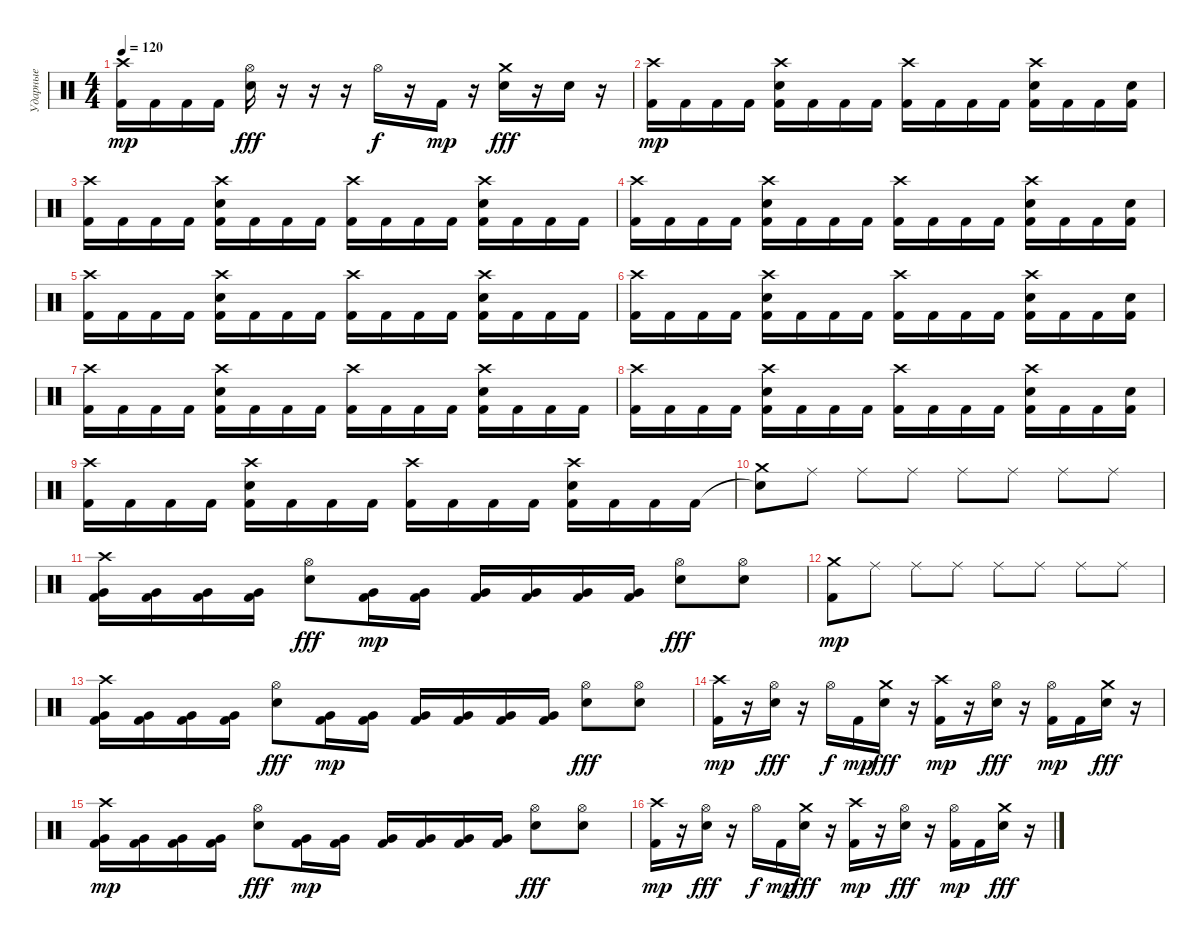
\track ("Ударные" "Ударные") {instrument percussion}
\staff {score}
\articulation defaults
\ts (4 4)
\tempo 120
\clef neutral
\ks c
("Crash high (hit)" "Kick (hit) 2").16{dy mp} "Kick (hit) 2".16 "Kick (hit) 2".16 "Kick (hit) 2".16 ("Hi-Hat (open)" "Snare (hit) 2").16{dy fff} r.16 r.16 r.16 "Hi-Hat (open)".16{dy f} r.16 "Kick (hit) 2".16{dy mp} r.16 ("Crash medium (hit)" "Snare (hit) 2").16{dy fff} r.16 "Snare (hit) 2".16 r.16 |
("Crash high (hit)" "Kick (hit) 2").16{dy mp} "Kick (hit) 2".16 "Kick (hit) 2".16 "Kick (hit) 2".16 ("Crash high (hit)" "Snare (hit) 2" "Kick (hit) 2").16 "Kick (hit) 2".16 "Kick (hit) 2".16 "Kick (hit) 2".16 ("Crash high (hit)" "Kick (hit) 2").16 "Kick (hit) 2".16 "Kick (hit) 2".16 "Kick (hit) 2".16 ("Crash high (hit)" "Snare (hit) 2" "Kick (hit) 2").16 "Kick (hit) 2".16 "Kick (hit) 2".16 ("Snare (hit) 2" "Kick (hit) 2").16 |
("Crash high (hit)" "Kick (hit) 2").16 "Kick (hit) 2".16 "Kick (hit) 2".16 "Kick (hit) 2".16 ("Crash high (hit)" "Snare (hit) 2" "Kick (hit) 2").16 "Kick (hit) 2".16 "Kick (hit) 2".16 "Kick (hit) 2".16 ("Crash high (hit)" "Kick (hit) 2").16 "Kick (hit) 2".16 "Kick (hit) 2".16 "Kick (hit) 2".16 ("Crash high (hit)" "Snare (hit) 2" "Kick (hit) 2").16 "Kick (hit) 2".16 "Kick (hit) 2".16 "Kick (hit) 2".16 |
("Crash high (hit)" "Kick (hit) 2").16 "Kick (hit) 2".16 "Kick (hit) 2".16 "Kick (hit) 2".16 ("Crash high (hit)" "Snare (hit) 2" "Kick (hit) 2").16 "Kick (hit) 2".16 "Kick (hit) 2".16 "Kick (hit) 2".16 ("Crash high (hit)" "Kick (hit) 2").16 "Kick (hit) 2".16 "Kick (hit) 2".16 "Kick (hit) 2".16 ("Crash high (hit)" "Snare (hit) 2" "Kick (hit) 2").16 "Kick (hit) 2".16 "Kick (hit) 2".16 ("Snare (hit) 2" "Kick (hit) 2").16 |
("Crash high (hit)" "Kick (hit) 2").16 "Kick (hit) 2".16 "Kick (hit) 2".16 "Kick (hit) 2".16 ("Crash high (hit)" "Snare (hit) 2" "Kick (hit) 2").16 "Kick (hit) 2".16 "Kick (hit) 2".16 "Kick (hit) 2".16 ("Crash high (hit)" "Kick (hit) 2").16 "Kick (hit) 2".16 "Kick (hit) 2".16 "Kick (hit) 2".16 ("Crash high (hit)" "Snare (hit) 2" "Kick (hit) 2").16 "Kick (hit) 2".16 "Kick (hit) 2".16 "Kick (hit) 2".16 |
("Crash high (hit)" "Kick (hit) 2").16 "Kick (hit) 2".16 "Kick (hit) 2".16 "Kick (hit) 2".16 ("Crash high (hit)" "Snare (hit) 2" "Kick (hit) 2").16 "Kick (hit) 2".16 "Kick (hit) 2".16 "Kick (hit) 2".16 ("Crash high (hit)" "Kick (hit) 2").16 "Kick (hit) 2".16 "Kick (hit) 2".16 "Kick (hit) 2".16 ("Crash high (hit)" "Snare (hit) 2" "Kick (hit) 2").16 "Kick (hit) 2".16 "Kick (hit) 2".16 ("Snare (hit) 2" "Kick (hit) 2").16 |
("Crash high (hit)" "Kick (hit) 2").16 "Kick (hit) 2".16 "Kick (hit) 2".16 "Kick (hit) 2".16 ("Crash high (hit)" "Snare (hit) 2" "Kick (hit) 2").16 "Kick (hit) 2".16 "Kick (hit) 2".16 "Kick (hit) 2".16 ("Crash high (hit)" "Kick (hit) 2").16 "Kick (hit) 2".16 "Kick (hit) 2".16 "Kick (hit) 2".16 ("Crash high (hit)" "Snare (hit) 2" "Kick (hit) 2").16 "Kick (hit) 2".16 "Kick (hit) 2".16 "Kick (hit) 2".16 |
("Crash high (hit)" "Kick (hit) 2").16 "Kick (hit) 2".16 "Kick (hit) 2".16 "Kick (hit) 2".16 ("Crash high (hit)" "Snare (hit) 2" "Kick (hit) 2").16 "Kick (hit) 2".16 "Kick (hit) 2".16 "Kick (hit) 2".16 ("Crash high (hit)" "Kick (hit) 2").16 "Kick (hit) 2".16 "Kick (hit) 2".16 "Kick (hit) 2".16 ("Crash high (hit)" "Snare (hit) 2" "Kick (hit) 2").16 "Kick (hit) 2".16 "Kick (hit) 2".16 ("Snare (hit) 2" "Kick (hit) 2").16 |
("Crash high (hit)" "Kick (hit) 2").16 "Kick (hit) 2".16 "Kick (hit) 2".16 "Kick (hit) 2".16 ("Crash high (hit)" "Snare (hit) 2" "Kick (hit) 2").16 "Kick (hit) 2".16 "Kick (hit) 2".16 "Kick (hit) 2".16 ("Crash high (hit)" "Kick (hit) 2").16 "Kick (hit) 2".16 "Kick (hit) 2".16 "Kick (hit) 2".16 ("Crash high (hit)" "Snare (hit) 2" "Kick (hit) 2").16 "Kick (hit) 2".16 "Kick (hit) 2".16 "Kick (hit) 2".16 |
("Snare (hit)"{t} "Crash medium (hit)").8 "Ride (middle)".8 "Ride (middle)".8 "Ride (middle)".8 "Ride (middle)".8 "Ride (middle)".8 "Ride (middle)".8 "Ride (middle)".8 |
("Crash high (hit)" "Kick (hit) 2" "Very Low Tom (hit)").16 ("Kick (hit) 2" "Very Low Tom (hit)").16 ("Kick (hit) 2" "Very Low Tom (hit)").16 ("Kick (hit) 2" "Very Low Tom (hit)").16 ("Hi-Hat (open)" "Snare (hit) 2").8{dy fff} ("Kick (hit) 2" "Very Low Tom (hit)").16{dy mp} ("Kick (hit) 2" "Very Low Tom (hit)").16 ("Kick (hit) 2" "Very Low Tom (hit)").16 ("Kick (hit) 2" "Very Low Tom (hit)").16 ("Kick (hit) 2" "Very Low Tom (hit)").16 ("Kick (hit) 2" "Very Low Tom (hit)").16 ("Hi-Hat (open)" "Snare (hit) 2").8{dy fff} ("Hi-Hat (open)" "Snare (hit) 2").8 |
("Crash medium (hit)" "Kick (hit) 2").8{dy mp} "Ride (middle)".8 "Ride (middle)".8 "Ride (middle)".8 "Ride (middle)".8 "Ride (middle)".8 "Ride (middle)".8 "Ride (middle)".8 |
("Crash high (hit)" "Kick (hit) 2" "Very Low Tom (hit)").16 ("Kick (hit) 2" "Very Low Tom (hit)").16 ("Kick (hit) 2" "Very Low Tom (hit)").16 ("Kick (hit) 2" "Very Low Tom (hit)").16 ("Hi-Hat (open)" "Snare (hit) 2").8{dy fff} ("Kick (hit) 2" "Very Low Tom (hit)").16{dy mp} ("Kick (hit) 2" "Very Low Tom (hit)").16 ("Kick (hit) 2" "Very Low Tom (hit)").16 ("Kick (hit) 2" "Very Low Tom (hit)").16 ("Kick (hit) 2" "Very Low Tom (hit)").16 ("Kick (hit) 2" "Very Low Tom (hit)").16 ("Hi-Hat (open)" "Snare (hit) 2").8{dy fff} ("Hi-Hat (open)" "Snare (hit) 2").8 |
("Crash high (hit)" "Kick (hit) 2").16{dy mp} r.16 ("Hi-Hat (open)" "Snare (hit) 2").16{dy fff} r.16 "Hi-Hat (open)".16{dy f} "Kick (hit) 2".16{dy mp} ("Crash medium (hit)" "Snare (hit) 2").16{dy fff} r.16 ("Crash high (hit)" "Kick (hit) 2").16{dy mp} r.16 ("Hi-Hat (open)" "Snare (hit) 2").16{dy fff} r.16 ("Hi-Hat (open)" "Kick (hit) 2").16{dy mp} "Kick (hit) 2".16 ("Crash medium (hit)" "Snare (hit) 2").16{dy fff} r.16 |
("Crash high (hit)" "Kick (hit) 2" "Very Low Tom (hit)").16{dy mp} ("Kick (hit) 2" "Very Low Tom (hit)").16 ("Kick (hit) 2" "Very Low Tom (hit)").16 ("Kick (hit) 2" "Very Low Tom (hit)").16 ("Hi-Hat (open)" "Snare (hit) 2").8{dy fff} ("Kick (hit) 2" "Very Low Tom (hit)").16{dy mp} ("Kick (hit) 2" "Very Low Tom (hit)").16 ("Kick (hit) 2" "Very Low Tom (hit)").16 ("Kick (hit) 2" "Very Low Tom (hit)").16 ("Kick (hit) 2" "Very Low Tom (hit)").16 ("Kick (hit) 2" "Very Low Tom (hit)").16 ("Hi-Hat (open)" "Snare (hit) 2").8{dy fff} ("Hi-Hat (open)" "Snare (hit) 2").8 |
("Crash high (hit)" "Kick (hit) 2").16{dy mp} r.16 ("Hi-Hat (open)" "Snare (hit) 2").16{dy fff} r.16 "Hi-Hat (open)".16{dy f} "Kick (hit) 2".16{dy mp} ("Crash medium (hit)" "Snare (hit) 2").16{dy fff} r.16 ("Crash high (hit)" "Kick (hit) 2").16{dy mp} r.16 ("Hi-Hat (open)" "Snare (hit) 2").16{dy fff} r.16 ("Hi-Hat (open)" "Kick (hit) 2").16{dy mp} "Kick (hit) 2".16 ("Crash medium (hit)" "Snare (hit) 2").16{dy fff} r.16
